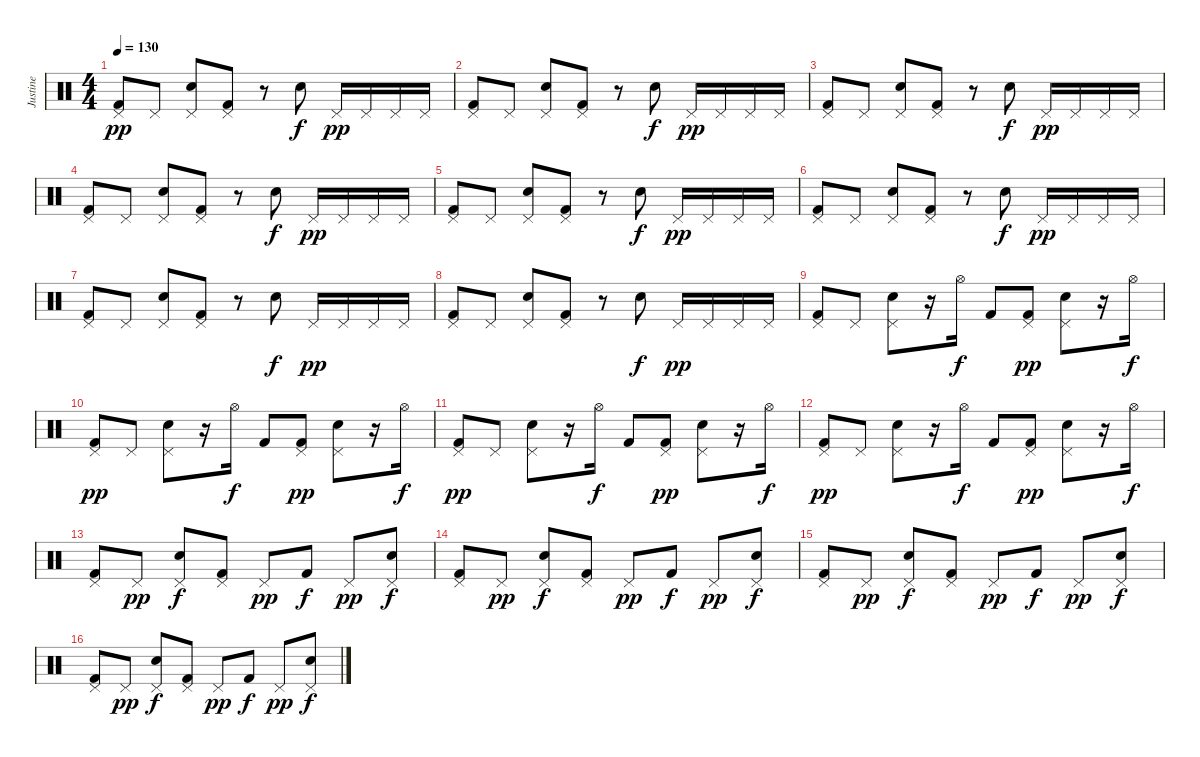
\track ("Justine" "Justine") {instrument percussion}
\staff {score}
\articulation defaults
\ts (4 4)
\tempo 130
\clef neutral
\ks c
("Pedal Hi-Hat (hit)" "Kick (hit) 2").8{dy pp} "Pedal Hi-Hat (hit)".8 ("Pedal Hi-Hat (hit)" "Electric Snare (hit)").8 ("Pedal Hi-Hat (hit)" "Kick (hit) 2").8 r.8 "Electric Snare (hit)".8{dy f} "Pedal Hi-Hat (hit)".16{dy pp} "Pedal Hi-Hat (hit)".16 "Pedal Hi-Hat (hit)".16 "Pedal Hi-Hat (hit)".16 |
("Pedal Hi-Hat (hit)" "Kick (hit) 2").8 "Pedal Hi-Hat (hit)".8 ("Pedal Hi-Hat (hit)" "Electric Snare (hit)").8 ("Pedal Hi-Hat (hit)" "Kick (hit) 2").8 r.8 "Electric Snare (hit)".8{dy f} "Pedal Hi-Hat (hit)".16{dy pp} "Pedal Hi-Hat (hit)".16 "Pedal Hi-Hat (hit)".16 "Pedal Hi-Hat (hit)".16 |
("Pedal Hi-Hat (hit)" "Kick (hit) 2").8 "Pedal Hi-Hat (hit)".8 ("Pedal Hi-Hat (hit)" "Electric Snare (hit)").8 ("Pedal Hi-Hat (hit)" "Kick (hit) 2").8 r.8 "Electric Snare (hit)".8{dy f} "Pedal Hi-Hat (hit)".16{dy pp} "Pedal Hi-Hat (hit)".16 "Pedal Hi-Hat (hit)".16 "Pedal Hi-Hat (hit)".16 |
("Pedal Hi-Hat (hit)" "Kick (hit) 2").8 "Pedal Hi-Hat (hit)".8 ("Pedal Hi-Hat (hit)" "Electric Snare (hit)").8 ("Pedal Hi-Hat (hit)" "Kick (hit) 2").8 r.8 "Electric Snare (hit)".8{dy f} "Pedal Hi-Hat (hit)".16{dy pp} "Pedal Hi-Hat (hit)".16 "Pedal Hi-Hat (hit)".16 "Pedal Hi-Hat (hit)".16 |
("Pedal Hi-Hat (hit)" "Kick (hit) 2").8 "Pedal Hi-Hat (hit)".8 ("Pedal Hi-Hat (hit)" "Electric Snare (hit)").8 ("Pedal Hi-Hat (hit)" "Kick (hit) 2").8 r.8 "Electric Snare (hit)".8{dy f} "Pedal Hi-Hat (hit)".16{dy pp} "Pedal Hi-Hat (hit)".16 "Pedal Hi-Hat (hit)".16 "Pedal Hi-Hat (hit)".16 |
("Pedal Hi-Hat (hit)" "Kick (hit) 2").8 "Pedal Hi-Hat (hit)".8 ("Pedal Hi-Hat (hit)" "Electric Snare (hit)").8 ("Pedal Hi-Hat (hit)" "Kick (hit) 2").8 r.8 "Electric Snare (hit)".8{dy f} "Pedal Hi-Hat (hit)".16{dy pp} "Pedal Hi-Hat (hit)".16 "Pedal Hi-Hat (hit)".16 "Pedal Hi-Hat (hit)".16 |
("Pedal Hi-Hat (hit)" "Kick (hit) 2").8 "Pedal Hi-Hat (hit)".8 ("Pedal Hi-Hat (hit)" "Electric Snare (hit)").8 ("Pedal Hi-Hat (hit)" "Kick (hit) 2").8 r.8 "Electric Snare (hit)".8{dy f} "Pedal Hi-Hat (hit)".16{dy pp} "Pedal Hi-Hat (hit)".16 "Pedal Hi-Hat (hit)".16 "Pedal Hi-Hat (hit)".16 |
("Pedal Hi-Hat (hit)" "Kick (hit) 2").8 "Pedal Hi-Hat (hit)".8 ("Pedal Hi-Hat (hit)" "Electric Snare (hit)").8 ("Pedal Hi-Hat (hit)" "Kick (hit) 2").8 r.8 "Electric Snare (hit)".8{dy f} "Pedal Hi-Hat (hit)".16{dy pp} "Pedal Hi-Hat (hit)".16 "Pedal Hi-Hat (hit)".16 "Pedal Hi-Hat (hit)".16 |
("Pedal Hi-Hat (hit)" "Kick (hit) 2").8 "Pedal Hi-Hat (hit)".8 ("Pedal Hi-Hat (hit)" "Electric Snare (hit)").8 r.16 "Hi-Hat (open)".16{dy f} "Kick (hit) 2".8 ("Pedal Hi-Hat (hit)" "Kick (hit) 2").8{dy pp} ("Pedal Hi-Hat (hit)" "Electric Snare (hit)").8 r.16 "Hi-Hat (open)".16{dy f} |
("Pedal Hi-Hat (hit)" "Kick (hit) 2").8{dy pp} "Pedal Hi-Hat (hit)".8 ("Pedal Hi-Hat (hit)" "Electric Snare (hit)").8 r.16 "Hi-Hat (open)".16{dy f} "Kick (hit) 2".8 ("Pedal Hi-Hat (hit)" "Kick (hit) 2").8{dy pp} ("Pedal Hi-Hat (hit)" "Electric Snare (hit)").8 r.16 "Hi-Hat (open)".16{dy f} |
("Pedal Hi-Hat (hit)" "Kick (hit) 2").8{dy pp} "Pedal Hi-Hat (hit)".8 ("Pedal Hi-Hat (hit)" "Electric Snare (hit)").8 r.16 "Hi-Hat (open)".16{dy f} "Kick (hit) 2".8 ("Pedal Hi-Hat (hit)" "Kick (hit) 2").8{dy pp} ("Pedal Hi-Hat (hit)" "Electric Snare (hit)").8 r.16 "Hi-Hat (open)".16{dy f} |
("Pedal Hi-Hat (hit)" "Kick (hit) 2").8{dy pp} "Pedal Hi-Hat (hit)".8 ("Pedal Hi-Hat (hit)" "Electric Snare (hit)").8 r.16 "Hi-Hat (open)".16{dy f} "Kick (hit) 2".8 ("Pedal Hi-Hat (hit)" "Kick (hit) 2").8{dy pp} ("Pedal Hi-Hat (hit)" "Electric Snare (hit)").8 r.16 "Hi-Hat (open)".16{dy f} |
("Pedal Hi-Hat (hit)" "Kick (hit) 2").8 "Pedal Hi-Hat (hit)".8{dy pp} ("Pedal Hi-Hat (hit)" "Electric Snare (hit)").8{dy f} ("Pedal Hi-Hat (hit)" "Kick (hit) 2").8 "Pedal Hi-Hat (hit)".8{dy pp} "Kick (hit) 2".8{dy f} "Pedal Hi-Hat (hit)".8{dy pp} ("Pedal Hi-Hat (hit)" "Electric Snare (hit)").8{dy f} |
("Pedal Hi-Hat (hit)" "Kick (hit) 2").8 "Pedal Hi-Hat (hit)".8{dy pp} ("Pedal Hi-Hat (hit)" "Electric Snare (hit)").8{dy f} ("Pedal Hi-Hat (hit)" "Kick (hit) 2").8 "Pedal Hi-Hat (hit)".8{dy pp} "Kick (hit) 2".8{dy f} "Pedal Hi-Hat (hit)".8{dy pp} ("Pedal Hi-Hat (hit)" "Electric Snare (hit)").8{dy f} |
("Pedal Hi-Hat (hit)" "Kick (hit) 2").8 "Pedal Hi-Hat (hit)".8{dy pp} ("Pedal Hi-Hat (hit)" "Electric Snare (hit)").8{dy f} ("Pedal Hi-Hat (hit)" "Kick (hit) 2").8 "Pedal Hi-Hat (hit)".8{dy pp} "Kick (hit) 2".8{dy f} "Pedal Hi-Hat (hit)".8{dy pp} ("Pedal Hi-Hat (hit)" "Electric Snare (hit)").8{dy f} |
("Pedal Hi-Hat (hit)" "Kick (hit) 2").8 "Pedal Hi-Hat (hit)".8{dy pp} ("Pedal Hi-Hat (hit)" "Electric Snare (hit)").8{dy f} ("Pedal Hi-Hat (hit)" "Kick (hit) 2").8 "Pedal Hi-Hat (hit)".8{dy pp} "Kick (hit) 2".8{dy f} "Pedal Hi-Hat (hit)".8{dy pp} ("Pedal Hi-Hat (hit)" "Electric Snare (hit)").8{dy f}
